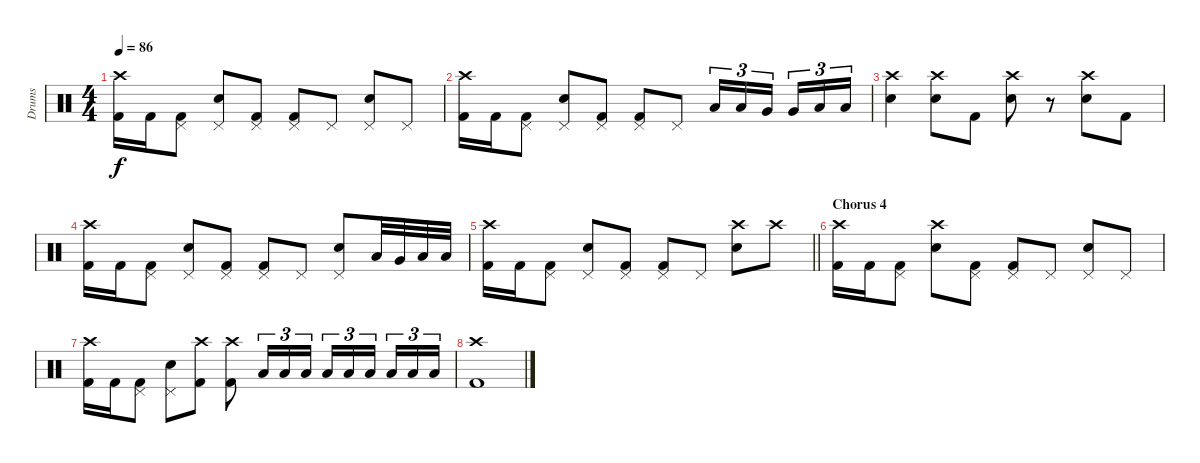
\track ("Drums" "Drums") {instrument percussion}
\staff {score}
\articulation defaults
\ts (4 4)
\tempo 86
\clef neutral
\ks c
("Crash high (hit)" "Kick (hit) 2").16{dy f} "Kick (hit) 2".16 ("Pedal Hi-Hat (hit)" "Kick (hit) 2").8 ("Pedal Hi-Hat (hit)" "Snare (hit) 2").8 ("Pedal Hi-Hat (hit)" "Kick (hit) 2").8 ("Pedal Hi-Hat (hit)" "Kick (hit) 2").8 "Pedal Hi-Hat (hit)".8 ("Pedal Hi-Hat (hit)" "Snare (hit) 2").8 "Pedal Hi-Hat (hit)".8 |
("Crash high (hit)" "Kick (hit) 2").16 "Kick (hit) 2".16 ("Pedal Hi-Hat (hit)" "Kick (hit) 2").8 ("Pedal Hi-Hat (hit)" "Snare (hit) 2").8 ("Pedal Hi-Hat (hit)" "Kick (hit) 2").8 ("Pedal Hi-Hat (hit)" "Kick (hit) 2").8 "Pedal Hi-Hat (hit)".8 "Low Tom (hit)".16{tu (3 2)} "Low Tom (hit)".16{tu (3 2)} "Very Low Tom (hit)".16{tu (3 2) beam splitsecondary} "Very Low Tom (hit)".16{tu (3 2)} "Low Floor Tom (hit)".16{tu (3 2)} "Low Floor Tom (hit)".16{tu (3 2)} |
("Crash high (hit)" "Snare (hit) 2").4 ("Crash high (hit)" "Snare (hit) 2").8 "Kick (hit) 2".8 ("Crash high (hit)" "Snare (hit) 2").8 r.8 ("Crash high (hit)" "Snare (hit) 2").8 "Kick (hit) 2".8 |
("Crash high (hit)" "Kick (hit) 2").16 "Kick (hit) 2".16 ("Pedal Hi-Hat (hit)" "Kick (hit) 2").8 ("Pedal Hi-Hat (hit)" "Snare (hit) 2").8 ("Pedal Hi-Hat (hit)" "Kick (hit) 2").8 ("Pedal Hi-Hat (hit)" "Kick (hit) 2").8 "Pedal Hi-Hat (hit)".8 ("Pedal Hi-Hat (hit)" "Snare (hit) 2").8 "Low Tom (hit)".32 "Very Low Tom (hit)".32 "Low Floor Tom (hit)".32 "Low Floor Tom (hit)".32 |
\barLineRight lightlight
("Crash high (hit)" "Kick (hit) 2").16 "Kick (hit) 2".16 ("Pedal Hi-Hat (hit)" "Kick (hit) 2").8 ("Pedal Hi-Hat (hit)" "Snare (hit) 2").8 ("Pedal Hi-Hat (hit)" "Kick (hit) 2").8 ("Pedal Hi-Hat (hit)" "Kick (hit) 2").8 "Pedal Hi-Hat (hit)".8 ("Crash high (hit)" "Snare (hit) 2").8 "Crash high (hit)".8 |
\section ("" "Chorus 4")
("Crash high (hit)" "Kick (hit) 2").16 "Kick (hit) 2".16 ("Pedal Hi-Hat (hit)" "Kick (hit) 2").8 ("Crash high (hit)" "Snare (hit) 2").8 ("Pedal Hi-Hat (hit)" "Kick (hit) 2").8 ("Pedal Hi-Hat (hit)" "Kick (hit) 2").8 "Pedal Hi-Hat (hit)".8 ("Pedal Hi-Hat (hit)" "Snare (hit) 2").8 "Pedal Hi-Hat (hit)".8 |
("Crash high (hit)" "Kick (hit) 2").16 "Kick (hit) 2".16 ("Pedal Hi-Hat (hit)" "Kick (hit) 2").8 ("Pedal Hi-Hat (hit)" "Snare (hit) 2").8 ("Crash high (hit)" "Kick (hit) 2").8 ("Crash high (hit)" "Kick (hit) 2").8 "Low Tom (hit)".16{tu (3 2)} "Low Tom (hit)".16{tu (3 2)} "Low Tom (hit)".16{tu (3 2)} "Low Tom (hit)".16{tu (3 2)} "Low Tom (hit)".16{tu (3 2)} "Low Tom (hit)".16{tu (3 2) beam splitsecondary} "Low Tom (hit)".16{tu (3 2)} "Low Tom (hit)".16{tu (3 2)} "Low Tom (hit)".16{tu (3 2)} |
("Crash high (hit)" "Kick (hit) 2").1
